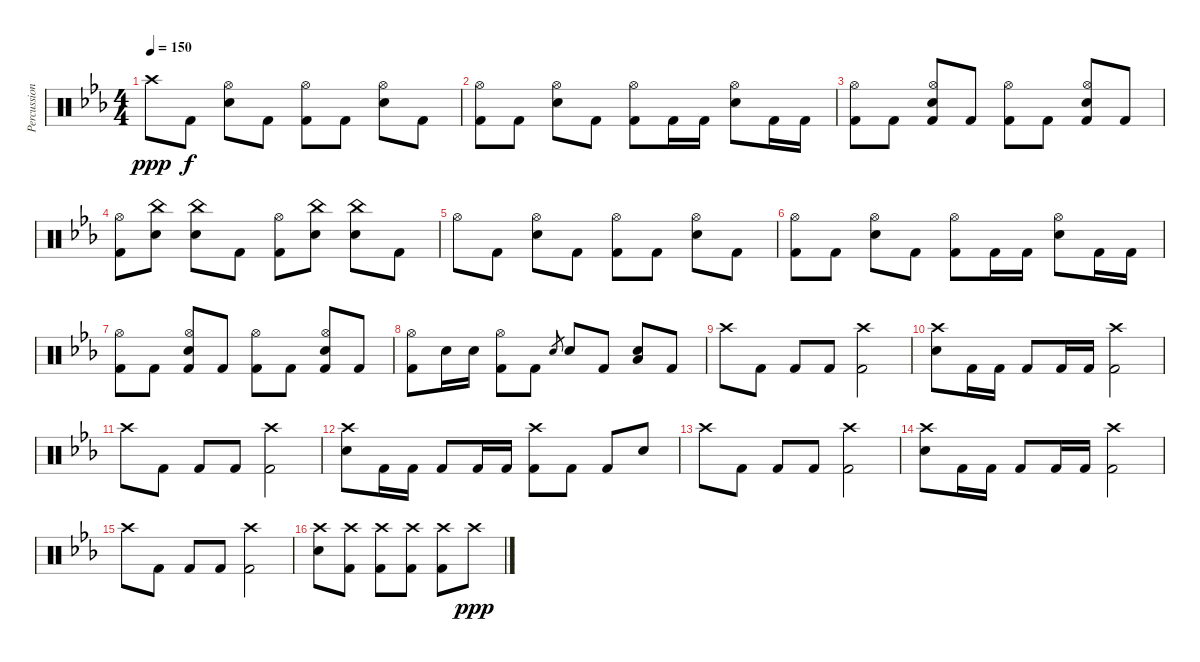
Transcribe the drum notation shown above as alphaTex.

\track ("Percussion" "Percussion") {instrument percussion}
\staff {score}
\articulation defaults
\ts (4 4)
\tempo 150
\clef neutral
\ks cminor "Crash high (hit)".8{dy ppp} "Kick (hit) 2".8{dy f}
("Hi-Hat (open)" "Electric Snare (hit)").8 "Kick (hit) 2".8 ("Hi-Hat (open)" "Kick (hit) 2").8 "Kick (hit) 2".8 ("Hi-Hat (open)" "Electric Snare (hit)").8 "Kick (hit) 2".8 |
("Hi-Hat (open)" "Kick (hit) 2").8 "Kick (hit) 2".8 ("Hi-Hat (open)" "Electric Snare (hit)").8 "Kick (hit) 2".8 ("Hi-Hat (open)" "Kick (hit) 2").8 "Kick (hit) 2".16 "Kick (hit) 2".16 ("Hi-Hat (open)" "Electric Snare (hit)").8 "Kick (hit) 2".16 "Kick (hit) 2".16 |
("Hi-Hat (open)" "Kick (hit) 2").8 "Kick (hit) 2".8 ("Hi-Hat (open)" "Electric Snare (hit)" "Kick (hit) 2").8 "Kick (hit) 2".8 ("Hi-Hat (open)" "Kick (hit) 2").8 "Kick (hit) 2".8 ("Hi-Hat (open)" "Electric Snare (hit)" "Kick (hit) 2").8 "Kick (hit) 2".8 |
("Hi-Hat (open)" "Kick (hit) 2").8 ("China (hit)" "Electric Snare (hit)").8 ("China (hit)" "Electric Snare (hit)").8 "Kick (hit) 2".8 ("Hi-Hat (open)" "Kick (hit) 2").8 ("China (hit)" "Electric Snare (hit)").8 ("China (hit)" "Electric Snare (hit)").8 "Kick (hit) 2".8 |
"Hi-Hat (open)".8 "Kick (hit) 2".8 ("Hi-Hat (open)" "Electric Snare (hit)").8 "Kick (hit) 2".8 ("Hi-Hat (open)" "Kick (hit) 2").8 "Kick (hit) 2".8 ("Hi-Hat (open)" "Electric Snare (hit)").8 "Kick (hit) 2".8 |
("Hi-Hat (open)" "Kick (hit) 2").8 "Kick (hit) 2".8 ("Hi-Hat (open)" "Electric Snare (hit)").8 "Kick (hit) 2".8 ("Hi-Hat (open)" "Kick (hit) 2").8 "Kick (hit) 2".16 "Kick (hit) 2".16 ("Hi-Hat (open)" "Electric Snare (hit)").8 "Kick (hit) 2".16 "Kick (hit) 2".16 |
("Hi-Hat (open)" "Kick (hit) 2").8 "Kick (hit) 2".8 ("Hi-Hat (open)" "Electric Snare (hit)" "Kick (hit) 2").8 "Kick (hit) 2".8 ("Hi-Hat (open)" "Kick (hit) 2").8 "Kick (hit) 2".8 ("Hi-Hat (open)" "Electric Snare (hit)" "Kick (hit) 2").8 "Kick (hit) 2".8 |
("Hi-Hat (open)" "Kick (hit) 2").8 "Electric Snare (hit)".16 "Electric Snare (hit)".16 ("Hi-Hat (open)" "Kick (hit) 2").8 "Kick (hit) 2".8 "Electric Snare (hit)".8{gr} "Electric Snare (hit)".8 "Kick (hit) 2".8 ("Low Floor Tom (hit)" "Electric Snare (hit)").8 "Kick (hit) 2".8 |
"Crash high (hit)".8 "Kick (hit) 2".8 "Kick (hit) 2".8 "Kick (hit) 2".8 ("Crash high (hit)" "Kick (hit) 2").2 |
("Crash high (hit)" "Electric Snare (hit)").8 "Kick (hit) 2".16 "Kick (hit) 2".16 "Kick (hit) 2".8 "Kick (hit) 2".16 "Kick (hit) 2".16 ("Crash high (hit)" "Kick (hit) 2").2 |
"Crash high (hit)".8 "Kick (hit) 2".8 "Kick (hit) 2".8 "Kick (hit) 2".8 ("Crash high (hit)" "Kick (hit) 2").2 |
("Crash high (hit)" "Electric Snare (hit)").8 "Kick (hit) 2".16 "Kick (hit) 2".16 "Kick (hit) 2".8 "Kick (hit) 2".16 "Kick (hit) 2".16 ("Crash high (hit)" "Kick (hit) 2").8 "Kick (hit) 2".8 "Kick (hit) 2".8 "Electric Snare (hit)".8 |
"Crash high (hit)".8 "Kick (hit) 2".8 "Kick (hit) 2".8 "Kick (hit) 2".8 ("Crash high (hit)" "Kick (hit) 2").2 |
("Crash high (hit)" "Electric Snare (hit)").8 "Kick (hit) 2".16 "Kick (hit) 2".16 "Kick (hit) 2".8 "Kick (hit) 2".16 "Kick (hit) 2".16 ("Crash high (hit)" "Kick (hit) 2").2 |
"Crash high (hit)".8 "Kick (hit) 2".8 "Kick (hit) 2".8 "Kick (hit) 2".8 ("Crash high (hit)" "Kick (hit) 2").2 |
("Crash high (hit)" "Electric Snare (hit)").8 ("Crash high (hit)" "Kick (hit) 2").8 ("Crash high (hit)" "Kick (hit) 2").8 ("Crash high (hit)" "Kick (hit) 2").8 ("Crash high (hit)" "Kick (hit) 2").8 "Crash high (hit)".8{dy ppp}
